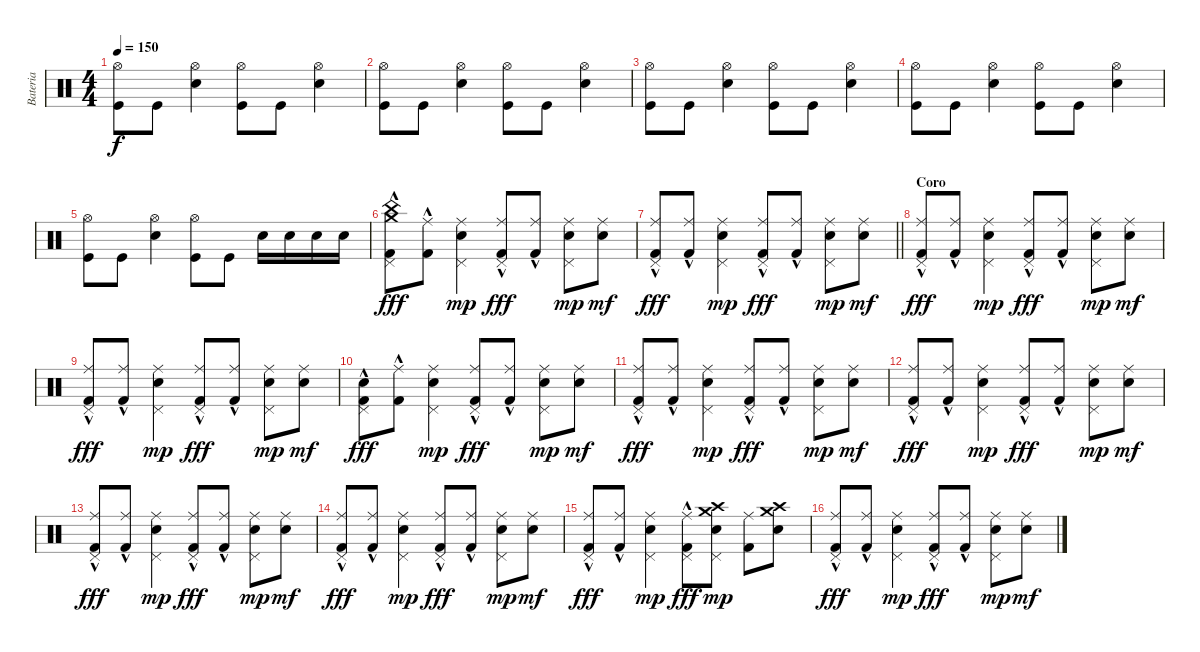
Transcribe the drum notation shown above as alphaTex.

\track ("Bateria" "Bateria") {instrument percussion}
\staff {score}
\articulation defaults
\ts (4 4)
\tempo 150
\clef neutral
\ks c
("Hi-Hat (open)" "Kick (hit)").8{dy f} "Kick (hit)".8 ("Hi-Hat (open)" "Snare (hit) 2").4 ("Hi-Hat (open)" "Kick (hit)").8 "Kick (hit)".8 ("Hi-Hat (open)" "Snare (hit) 2").4 |
("Hi-Hat (open)" "Kick (hit)").8 "Kick (hit)".8 ("Hi-Hat (open)" "Snare (hit) 2").4 ("Hi-Hat (open)" "Kick (hit)").8 "Kick (hit)".8 ("Hi-Hat (open)" "Snare (hit) 2").4 |
("Hi-Hat (open)" "Kick (hit)").8 "Kick (hit)".8 ("Hi-Hat (open)" "Snare (hit) 2").4 ("Hi-Hat (open)" "Kick (hit)").8 "Kick (hit)".8 ("Hi-Hat (open)" "Snare (hit) 2").4 |
("Hi-Hat (open)" "Kick (hit)").8 "Kick (hit)".8 ("Hi-Hat (open)" "Snare (hit) 2").4 ("Hi-Hat (open)" "Kick (hit)").8 "Kick (hit)".8 ("Hi-Hat (open)" "Snare (hit) 2").4 |
("Hi-Hat (open)" "Kick (hit)").8 "Kick (hit)".8 ("Hi-Hat (open)" "Snare (hit) 2").4 ("Hi-Hat (open)" "Kick (hit)").8 "Kick (hit)".8 "Electric Snare (hit)".16 "Electric Snare (hit)".16 "Electric Snare (hit)".16 "Electric Snare (hit)".16 |
("Crash medium (hit)" "Pedal Hi-Hat (hit)" "China (hit)" "Kick (hit) 2"{hac}).8{dy fff} ("Ride (middle)" "Kick (hit) 2"{hac}).8 ("Ride (middle)" "Pedal Hi-Hat (hit)" "Electric Snare (hit)").4{dy mp} ("Ride (middle)" "Pedal Hi-Hat (hit)" "Kick (hit) 2"{hac}).8{dy fff} ("Ride (middle)" "Kick (hit) 2"{hac}).8 ("Ride (middle)" "Pedal Hi-Hat (hit)" "Electric Snare (hit)").8{dy mp} ("Ride (middle)" "Electric Snare (hit)").8{dy mf} |
\barLineRight lightlight
("Ride (middle)" "Pedal Hi-Hat (hit)" "Kick (hit) 2"{hac}).8{dy fff} ("Ride (middle)" "Kick (hit) 2"{hac}).8 ("Ride (middle)" "Pedal Hi-Hat (hit)" "Electric Snare (hit)").4{dy mp} ("Ride (middle)" "Pedal Hi-Hat (hit)" "Kick (hit) 2"{hac}).8{dy fff} ("Ride (middle)" "Kick (hit) 2"{hac}).8 ("Ride (middle)" "Pedal Hi-Hat (hit)" "Electric Snare (hit)").8{dy mp} ("Ride (middle)" "Electric Snare (hit)").8{dy mf} |
\section ("" "Coro")
("Ride (middle)" "Pedal Hi-Hat (hit)" "Kick (hit) 2"{hac}).8{dy fff} ("Ride (middle)" "Kick (hit) 2"{hac}).8 ("Ride (middle)" "Pedal Hi-Hat (hit)" "Electric Snare (hit)").4{dy mp} ("Ride (middle)" "Pedal Hi-Hat (hit)" "Kick (hit) 2"{hac}).8{dy fff} ("Ride (middle)" "Kick (hit) 2"{hac}).8 ("Ride (middle)" "Pedal Hi-Hat (hit)" "Electric Snare (hit)").8{dy mp} ("Ride (middle)" "Electric Snare (hit)").8{dy mf} |
("Ride (middle)" "Pedal Hi-Hat (hit)" "Kick (hit) 2"{hac}).8{dy fff} ("Ride (middle)" "Kick (hit) 2"{hac}).8 ("Ride (middle)" "Pedal Hi-Hat (hit)" "Electric Snare (hit)").4{dy mp} ("Ride (middle)" "Pedal Hi-Hat (hit)" "Kick (hit) 2"{hac}).8{dy fff} ("Ride (middle)" "Kick (hit) 2"{hac}).8 ("Ride (middle)" "Pedal Hi-Hat (hit)" "Electric Snare (hit)").8{dy mp} ("Ride (middle)" "Electric Snare (hit)").8{dy mf} |
("Snare (hit)" "Pedal Hi-Hat (hit)" "Kick (hit) 2"{hac}).8{dy fff} ("Ride (middle)" "Kick (hit) 2"{hac}).8 ("Ride (middle)" "Pedal Hi-Hat (hit)" "Electric Snare (hit)").4{dy mp} ("Ride (middle)" "Pedal Hi-Hat (hit)" "Kick (hit) 2"{hac}).8{dy fff} ("Ride (middle)" "Kick (hit) 2"{hac}).8 ("Ride (middle)" "Pedal Hi-Hat (hit)" "Electric Snare (hit)").8{dy mp} ("Ride (middle)" "Electric Snare (hit)").8{dy mf} |
("Ride (middle)" "Pedal Hi-Hat (hit)" "Kick (hit) 2"{hac}).8{dy fff} ("Ride (middle)" "Kick (hit) 2"{hac}).8 ("Ride (middle)" "Pedal Hi-Hat (hit)" "Electric Snare (hit)").4{dy mp} ("Ride (middle)" "Pedal Hi-Hat (hit)" "Kick (hit) 2"{hac}).8{dy fff} ("Ride (middle)" "Kick (hit) 2"{hac}).8 ("Ride (middle)" "Pedal Hi-Hat (hit)" "Electric Snare (hit)").8{dy mp} ("Ride (middle)" "Electric Snare (hit)").8{dy mf} |
("Ride (middle)" "Pedal Hi-Hat (hit)" "Kick (hit) 2"{hac}).8{dy fff} ("Ride (middle)" "Kick (hit) 2"{hac}).8 ("Ride (middle)" "Pedal Hi-Hat (hit)" "Electric Snare (hit)").4{dy mp} ("Ride (middle)" "Pedal Hi-Hat (hit)" "Kick (hit) 2"{hac}).8{dy fff} ("Ride (middle)" "Kick (hit) 2"{hac}).8 ("Ride (middle)" "Pedal Hi-Hat (hit)" "Electric Snare (hit)").8{dy mp} ("Ride (middle)" "Electric Snare (hit)").8{dy mf} |
("Ride (middle)" "Pedal Hi-Hat (hit)" "Kick (hit) 2"{hac}).8{dy fff} ("Ride (middle)" "Kick (hit) 2"{hac}).8 ("Ride (middle)" "Pedal Hi-Hat (hit)" "Electric Snare (hit)").4{dy mp} ("Ride (middle)" "Pedal Hi-Hat (hit)" "Kick (hit) 2"{hac}).8{dy fff} ("Ride (middle)" "Kick (hit) 2"{hac}).8 ("Ride (middle)" "Pedal Hi-Hat (hit)" "Electric Snare (hit)").8{dy mp} ("Ride (middle)" "Electric Snare (hit)").8{dy mf} |
("Ride (middle)" "Pedal Hi-Hat (hit)" "Kick (hit) 2"{hac}).8{dy fff} ("Ride (middle)" "Kick (hit) 2"{hac}).8 ("Ride (middle)" "Pedal Hi-Hat (hit)" "Electric Snare (hit)").4{dy mp} ("Ride (middle)" "Pedal Hi-Hat (hit)" "Kick (hit) 2"{hac}).8{dy fff} ("Ride (middle)" "Kick (hit) 2"{hac}).8 ("Ride (middle)" "Pedal Hi-Hat (hit)" "Electric Snare (hit)").8{dy mp} ("Ride (middle)" "Electric Snare (hit)").8{dy mf} |
("Ride (middle)" "Pedal Hi-Hat (hit)" "Kick (hit) 2"{hac}).8{dy fff} ("Ride (middle)" "Kick (hit) 2"{hac}).8 ("Ride (middle)" "Pedal Hi-Hat (hit)" "Electric Snare (hit)").4{dy mp} ("Ride (middle)" "Pedal Hi-Hat (hit)" "Kick (hit) 2"{hac}).8{dy fff} ("Crash high (hit)" "Pedal Hi-Hat (hit)" "Electric Snare (hit)" "Crash medium (hit)").8{dy mp} ("Ride (middle)" "Kick (hit) 2").8 ("Crash medium (hit)" "Electric Snare (hit)" "Crash high (hit)").8 |
("Ride (middle)" "Pedal Hi-Hat (hit)" "Kick (hit) 2"{hac}).8{dy fff} ("Ride (middle)" "Kick (hit) 2"{hac}).8 ("Ride (middle)" "Pedal Hi-Hat (hit)" "Electric Snare (hit)").4{dy mp} ("Ride (middle)" "Pedal Hi-Hat (hit)" "Kick (hit) 2"{hac}).8{dy fff} ("Ride (middle)" "Kick (hit) 2"{hac}).8 ("Ride (middle)" "Pedal Hi-Hat (hit)" "Electric Snare (hit)").8{dy mp} ("Ride (middle)" "Electric Snare (hit)").8{dy mf}
